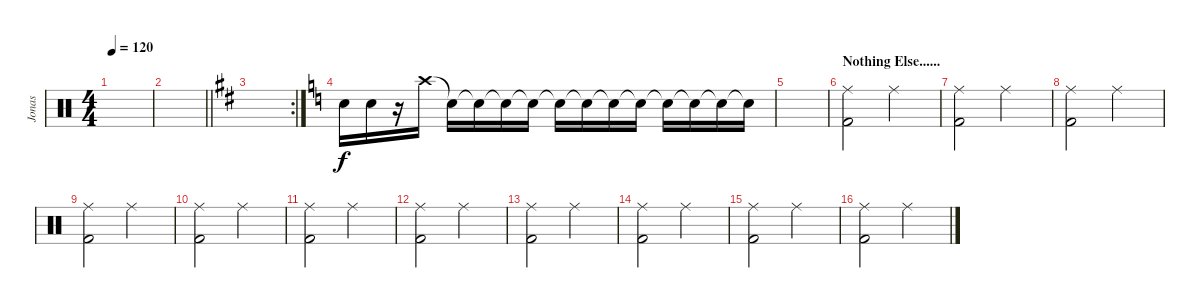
\track ("Jonas" "Jonas") {instrument percussion}
\staff {score}
\articulation defaults
\ts (4 4)
\tempo 120
\clef neutral
\ks c
|
\barLineRight lightlight
|
\rc 2
\ks d
|
\ks c "Snare (hit) 2".16 "Snare (hit) 2".16
r.16 "Crash high (hit)".16 "Snare (hit)"{t}.16 "Snare (hit)"{t}.16 "Snare (hit)"{t}.16 "Snare (hit)"{t}.16 "Snare (hit)"{t}.16 "Snare (hit)"{t}.16 "Snare (hit)"{t}.16 "Snare (hit)"{t}.16 "Snare (hit)"{t}.16 "Snare (hit)"{t}.16 "Snare (hit)"{t}.16 "Snare (hit)"{t}.16 |
|
\section ("" "Nothing Else......")
("Ride (middle)" "Kick (hit) 2").2 "Ride (middle)".2 |
("Ride (middle)" "Kick (hit) 2").2 "Ride (middle)".2 |
("Ride (middle)" "Kick (hit) 2").2 "Ride (middle)".2 |
("Ride (middle)" "Kick (hit) 2").2 "Ride (middle)".2 |
("Ride (middle)" "Kick (hit) 2").2 "Ride (middle)".2 |
("Ride (middle)" "Kick (hit) 2").2 "Ride (middle)".2 |
("Ride (middle)" "Kick (hit) 2").2 "Ride (middle)".2 |
("Ride (middle)" "Kick (hit) 2").2 "Ride (middle)".2 |
("Ride (middle)" "Kick (hit) 2").2 "Ride (middle)".2 |
("Ride (middle)" "Kick (hit) 2").2 "Ride (middle)".2 |
("Ride (middle)" "Kick (hit) 2").2 "Ride (middle)".2
